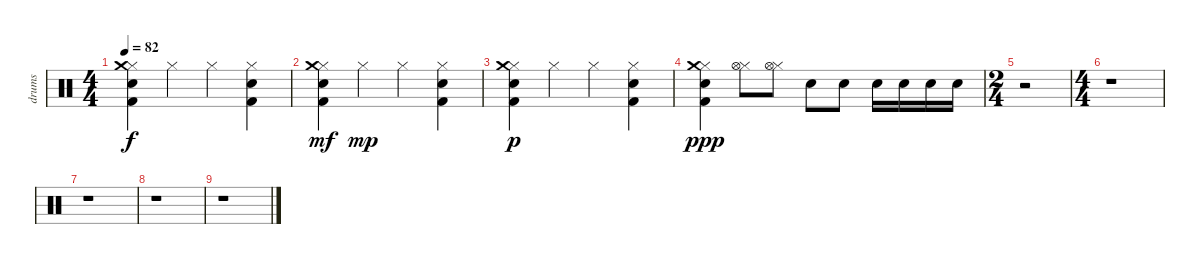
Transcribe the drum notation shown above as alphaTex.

\track ("drums" "drums") {instrument percussion}
\staff {score}
\articulation defaults
\ts (4 4)
\tempo 82
\clef neutral
\ks c
("Hi-Hat (closed)" "Snare (hit) 2" "Kick (hit) 2" "Crash medium (hit)").4{dy f} "Hi-Hat (closed)".4 "Hi-Hat (closed)".4 ("Hi-Hat (closed)" "Snare (hit) 2" "Kick (hit) 2").4 |
("Hi-Hat (closed)" "Snare (hit) 2" "Kick (hit) 2" "Crash medium (hit)").4{dy mf} "Hi-Hat (closed)".4{dy mp} "Hi-Hat (closed)".4 ("Hi-Hat (closed)" "Snare (hit) 2" "Kick (hit) 2").4 |
("Hi-Hat (closed)" "Snare (hit) 2" "Kick (hit) 2" "Crash medium (hit)").4{dy p} "Hi-Hat (closed)".4 "Hi-Hat (closed)".4 ("Hi-Hat (closed)" "Snare (hit) 2" "Kick (hit) 2").4 |
("Hi-Hat (closed)" "Snare (hit) 2" "Kick (hit) 2" "Crash medium (hit)").4{dy ppp volume 11} ("Hi-Hat (closed)" "Hi-Hat (open)").8{volume 10} ("Hi-Hat (closed)" "Hi-Hat (open)").8{volume 9} "Electric Snare (hit)".8{volume 7} "Electric Snare (hit)".8{volume 6} "Snare (hit) 2".16{volume 4} "Snare (hit) 2".16{volume 3} "Snare (hit) 2".16{volume 1} "Snare (hit) 2".16{volume 0} |
\ts (2 4)
r.2 |
\ts (4 4)
r.1 |
r.1 |
r.1 |
r.1
